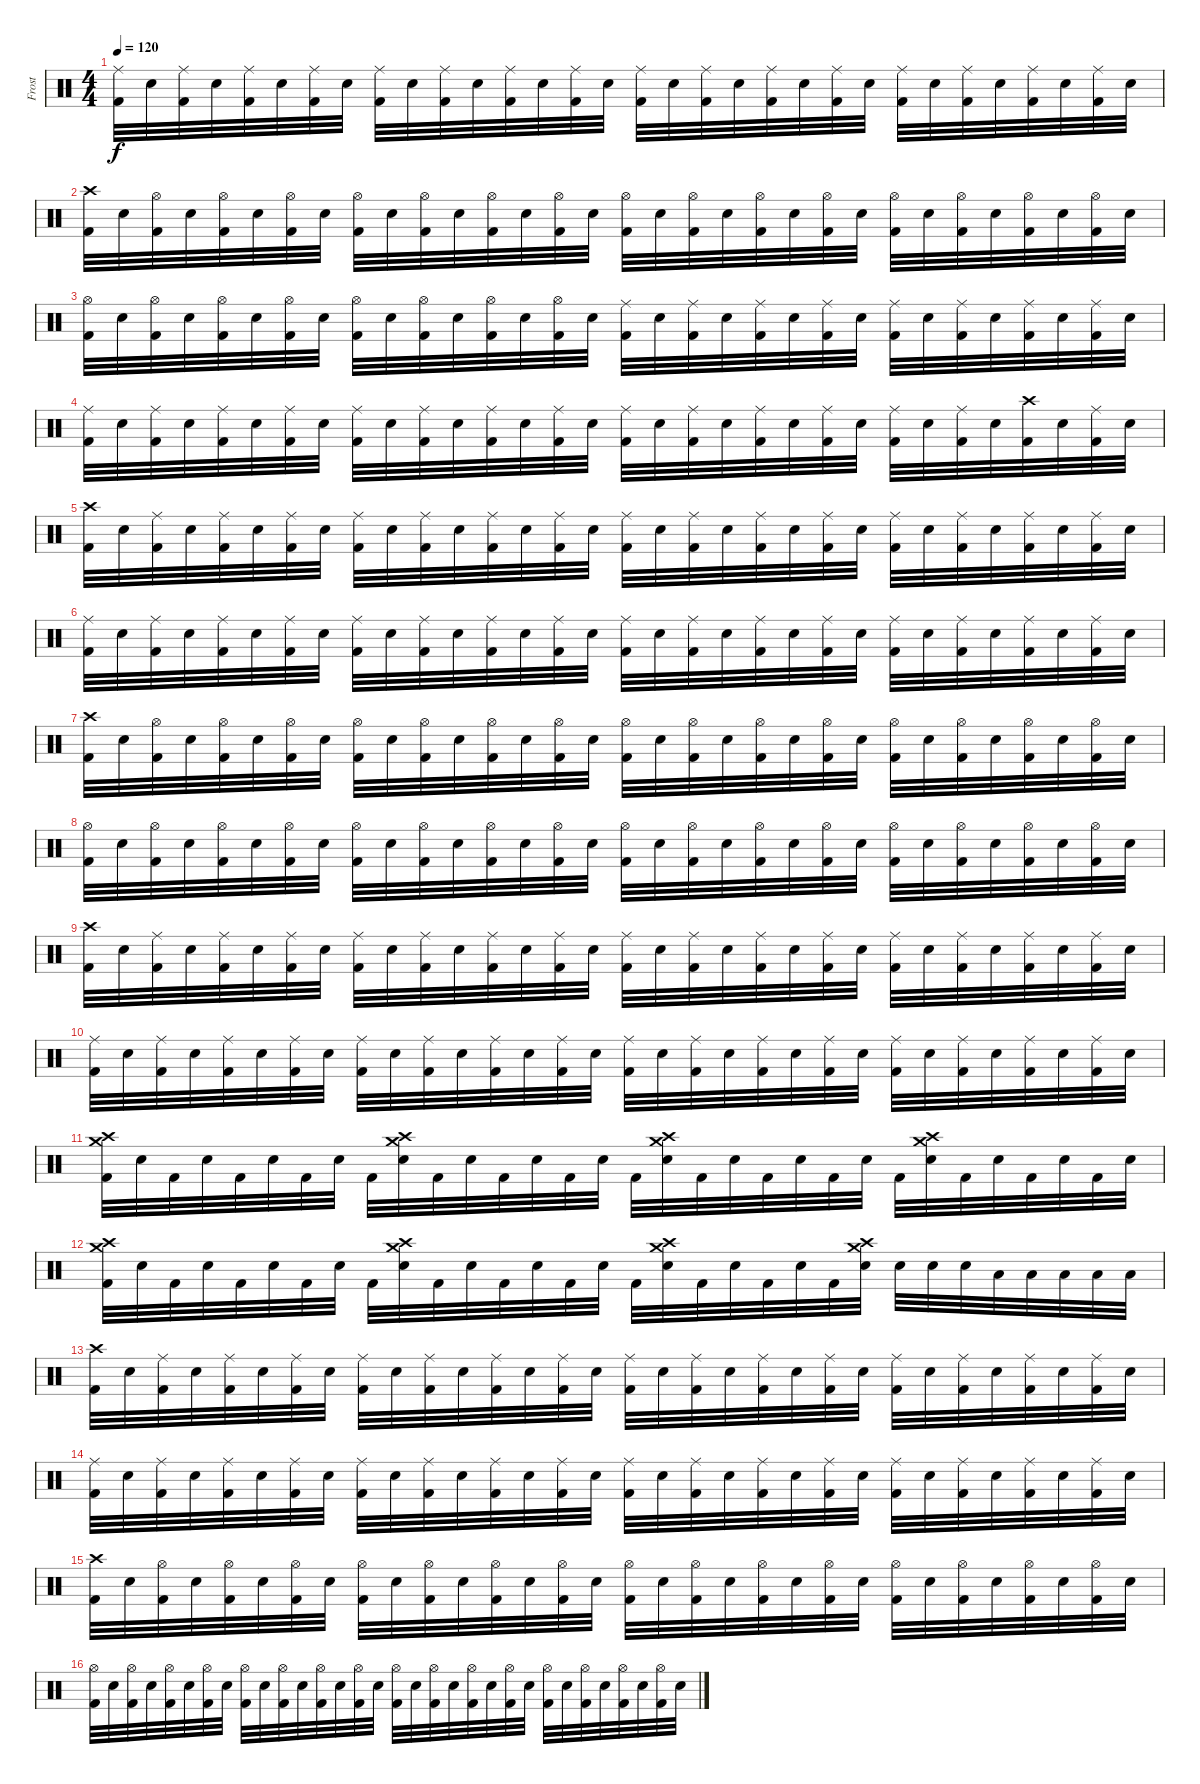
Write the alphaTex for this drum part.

\track ("Frost" "Frost") {instrument percussion}
\staff {score}
\articulation defaults
\ts (4 4)
\tempo 120
\clef neutral
\ks c
("Ride (middle)" "Kick (hit) 2").32{dy f} "Snare (hit) 2".32 ("Ride (middle)" "Kick (hit) 2").32 "Snare (hit) 2".32 ("Ride (middle)" "Kick (hit) 2").32 "Snare (hit) 2".32 ("Ride (middle)" "Kick (hit) 2").32 "Snare (hit) 2".32 ("Ride (middle)" "Kick (hit) 2").32 "Snare (hit) 2".32 ("Ride (middle)" "Kick (hit) 2").32 "Snare (hit) 2".32 ("Ride (middle)" "Kick (hit) 2").32 "Snare (hit) 2".32 ("Ride (middle)" "Kick (hit) 2").32 "Snare (hit) 2".32 ("Ride (middle)" "Kick (hit) 2").32 "Snare (hit) 2".32 ("Ride (middle)" "Kick (hit) 2").32 "Snare (hit) 2".32 ("Ride (middle)" "Kick (hit) 2").32 "Snare (hit) 2".32 ("Ride (middle)" "Kick (hit) 2").32 "Snare (hit) 2".32 ("Ride (middle)" "Kick (hit) 2").32 "Snare (hit) 2".32 ("Ride (middle)" "Kick (hit) 2").32 "Snare (hit) 2".32 ("Ride (middle)" "Kick (hit) 2").32 "Snare (hit) 2".32 ("Ride (middle)" "Kick (hit) 2").32 "Snare (hit) 2".32 |
("Crash high (hit)" "Kick (hit) 2").32 "Snare (hit) 2".32 ("Hi-Hat (open)" "Kick (hit) 2").32 "Snare (hit) 2".32 ("Hi-Hat (open)" "Kick (hit) 2").32 "Snare (hit) 2".32 ("Hi-Hat (open)" "Kick (hit) 2").32 "Snare (hit) 2".32 ("Hi-Hat (open)" "Kick (hit) 2").32 "Snare (hit) 2".32 ("Hi-Hat (open)" "Kick (hit) 2").32 "Snare (hit) 2".32 ("Hi-Hat (open)" "Kick (hit) 2").32 "Snare (hit) 2".32 ("Hi-Hat (open)" "Kick (hit) 2").32 "Snare (hit) 2".32 ("Hi-Hat (open)" "Kick (hit) 2").32 "Snare (hit) 2".32 ("Hi-Hat (open)" "Kick (hit) 2").32 "Snare (hit) 2".32 ("Hi-Hat (open)" "Kick (hit) 2").32 "Snare (hit) 2".32 ("Hi-Hat (open)" "Kick (hit) 2").32 "Snare (hit) 2".32 ("Hi-Hat (open)" "Kick (hit) 2").32 "Snare (hit) 2".32 ("Hi-Hat (open)" "Kick (hit) 2").32 "Snare (hit) 2".32 ("Hi-Hat (open)" "Kick (hit) 2").32 "Snare (hit) 2".32 ("Hi-Hat (open)" "Kick (hit) 2").32 "Snare (hit) 2".32 |
("Hi-Hat (open)" "Kick (hit) 2").32 "Snare (hit) 2".32 ("Hi-Hat (open)" "Kick (hit) 2").32 "Snare (hit) 2".32 ("Hi-Hat (open)" "Kick (hit) 2").32 "Snare (hit) 2".32 ("Hi-Hat (open)" "Kick (hit) 2").32 "Snare (hit) 2".32 ("Hi-Hat (open)" "Kick (hit) 2").32 "Snare (hit) 2".32 ("Hi-Hat (open)" "Kick (hit) 2").32 "Snare (hit) 2".32 ("Hi-Hat (open)" "Kick (hit) 2").32 "Snare (hit) 2".32 ("Hi-Hat (open)" "Kick (hit) 2").32 "Snare (hit) 2".32 ("Ride (middle)" "Kick (hit) 2").32 "Snare (hit) 2".32 ("Ride (middle)" "Kick (hit) 2").32 "Snare (hit) 2".32 ("Ride (middle)" "Kick (hit) 2").32 "Snare (hit) 2".32 ("Ride (middle)" "Kick (hit) 2").32 "Snare (hit) 2".32 ("Ride (middle)" "Kick (hit) 2").32 "Snare (hit) 2".32 ("Ride (middle)" "Kick (hit) 2").32 "Snare (hit) 2".32 ("Ride (middle)" "Kick (hit) 2").32 "Snare (hit) 2".32 ("Ride (middle)" "Kick (hit) 2").32 "Snare (hit) 2".32 |
("Ride (middle)" "Kick (hit) 2").32 "Snare (hit) 2".32 ("Ride (middle)" "Kick (hit) 2").32 "Snare (hit) 2".32 ("Ride (middle)" "Kick (hit) 2").32 "Snare (hit) 2".32 ("Ride (middle)" "Kick (hit) 2").32 "Snare (hit) 2".32 ("Ride (middle)" "Kick (hit) 2").32 "Snare (hit) 2".32 ("Ride (middle)" "Kick (hit) 2").32 "Snare (hit) 2".32 ("Ride (middle)" "Kick (hit) 2").32 "Snare (hit) 2".32 ("Ride (middle)" "Kick (hit) 2").32 "Snare (hit) 2".32 ("Ride (middle)" "Kick (hit) 2").32 "Snare (hit) 2".32 ("Ride (middle)" "Kick (hit) 2").32 "Snare (hit) 2".32 ("Ride (middle)" "Kick (hit) 2").32 "Snare (hit) 2".32 ("Ride (middle)" "Kick (hit) 2").32 "Snare (hit) 2".32 ("Ride (middle)" "Kick (hit) 2").32 "Snare (hit) 2".32 ("Ride (middle)" "Kick (hit) 2").32 "Snare (hit) 2".32 ("Crash high (hit)" "Kick (hit) 2").32 "Snare (hit) 2".32 ("Ride (middle)" "Kick (hit) 2").32 "Snare (hit) 2".32 |
("Crash high (hit)" "Kick (hit) 2").32 "Snare (hit) 2".32 ("Ride (middle)" "Kick (hit) 2").32 "Snare (hit) 2".32 ("Ride (middle)" "Kick (hit) 2").32 "Snare (hit) 2".32 ("Ride (middle)" "Kick (hit) 2").32 "Snare (hit) 2".32 ("Ride (middle)" "Kick (hit) 2").32 "Snare (hit) 2".32 ("Ride (middle)" "Kick (hit) 2").32 "Snare (hit) 2".32 ("Ride (middle)" "Kick (hit) 2").32 "Snare (hit) 2".32 ("Ride (middle)" "Kick (hit) 2").32 "Snare (hit) 2".32 ("Ride (middle)" "Kick (hit) 2").32 "Snare (hit) 2".32 ("Ride (middle)" "Kick (hit) 2").32 "Snare (hit) 2".32 ("Ride (middle)" "Kick (hit) 2").32 "Snare (hit) 2".32 ("Ride (middle)" "Kick (hit) 2").32 "Snare (hit) 2".32 ("Ride (middle)" "Kick (hit) 2").32 "Snare (hit) 2".32 ("Ride (middle)" "Kick (hit) 2").32 "Snare (hit) 2".32 ("Ride (middle)" "Kick (hit) 2").32 "Snare (hit) 2".32 ("Ride (middle)" "Kick (hit) 2").32 "Snare (hit) 2".32 |
("Ride (middle)" "Kick (hit) 2").32 "Snare (hit) 2".32 ("Ride (middle)" "Kick (hit) 2").32 "Snare (hit) 2".32 ("Ride (middle)" "Kick (hit) 2").32 "Snare (hit) 2".32 ("Ride (middle)" "Kick (hit) 2").32 "Snare (hit) 2".32 ("Ride (middle)" "Kick (hit) 2").32 "Snare (hit) 2".32 ("Ride (middle)" "Kick (hit) 2").32 "Snare (hit) 2".32 ("Ride (middle)" "Kick (hit) 2").32 "Snare (hit) 2".32 ("Ride (middle)" "Kick (hit) 2").32 "Snare (hit) 2".32 ("Ride (middle)" "Kick (hit) 2").32 "Snare (hit) 2".32 ("Ride (middle)" "Kick (hit) 2").32 "Snare (hit) 2".32 ("Ride (middle)" "Kick (hit) 2").32 "Snare (hit) 2".32 ("Ride (middle)" "Kick (hit) 2").32 "Snare (hit) 2".32 ("Ride (middle)" "Kick (hit) 2").32 "Snare (hit) 2".32 ("Ride (middle)" "Kick (hit) 2").32 "Snare (hit) 2".32 ("Ride (middle)" "Kick (hit) 2").32 "Snare (hit) 2".32 ("Ride (middle)" "Kick (hit) 2").32 "Snare (hit) 2".32 |
("Crash high (hit)" "Kick (hit) 2").32 "Snare (hit) 2".32 ("Hi-Hat (open)" "Kick (hit) 2").32 "Snare (hit) 2".32 ("Hi-Hat (open)" "Kick (hit) 2").32 "Snare (hit) 2".32 ("Hi-Hat (open)" "Kick (hit) 2").32 "Snare (hit) 2".32 ("Hi-Hat (open)" "Kick (hit) 2").32 "Snare (hit) 2".32 ("Hi-Hat (open)" "Kick (hit) 2").32 "Snare (hit) 2".32 ("Hi-Hat (open)" "Kick (hit) 2").32 "Snare (hit) 2".32 ("Hi-Hat (open)" "Kick (hit) 2").32 "Snare (hit) 2".32 ("Hi-Hat (open)" "Kick (hit) 2").32 "Snare (hit) 2".32 ("Hi-Hat (open)" "Kick (hit) 2").32 "Snare (hit) 2".32 ("Hi-Hat (open)" "Kick (hit) 2").32 "Snare (hit) 2".32 ("Hi-Hat (open)" "Kick (hit) 2").32 "Snare (hit) 2".32 ("Hi-Hat (open)" "Kick (hit) 2").32 "Snare (hit) 2".32 ("Hi-Hat (open)" "Kick (hit) 2").32 "Snare (hit) 2".32 ("Hi-Hat (open)" "Kick (hit) 2").32 "Snare (hit) 2".32 ("Hi-Hat (open)" "Kick (hit) 2").32 "Snare (hit) 2".32 |
("Hi-Hat (open)" "Kick (hit) 2").32 "Snare (hit) 2".32 ("Hi-Hat (open)" "Kick (hit) 2").32 "Snare (hit) 2".32 ("Hi-Hat (open)" "Kick (hit) 2").32 "Snare (hit) 2".32 ("Hi-Hat (open)" "Kick (hit) 2").32 "Snare (hit) 2".32 ("Hi-Hat (open)" "Kick (hit) 2").32 "Snare (hit) 2".32 ("Hi-Hat (open)" "Kick (hit) 2").32 "Snare (hit) 2".32 ("Hi-Hat (open)" "Kick (hit) 2").32 "Snare (hit) 2".32 ("Hi-Hat (open)" "Kick (hit) 2").32 "Snare (hit) 2".32 ("Hi-Hat (open)" "Kick (hit) 2").32 "Snare (hit) 2".32 ("Hi-Hat (open)" "Kick (hit) 2").32 "Snare (hit) 2".32 ("Hi-Hat (open)" "Kick (hit) 2").32 "Snare (hit) 2".32 ("Hi-Hat (open)" "Kick (hit) 2").32 "Snare (hit) 2".32 ("Hi-Hat (open)" "Kick (hit) 2").32 "Snare (hit) 2".32 ("Hi-Hat (open)" "Kick (hit) 2").32 "Snare (hit) 2".32 ("Hi-Hat (open)" "Kick (hit) 2").32 "Snare (hit) 2".32 ("Hi-Hat (open)" "Kick (hit) 2").32 "Snare (hit) 2".32 |
("Crash high (hit)" "Kick (hit) 2").32 "Snare (hit) 2".32 ("Ride (middle)" "Kick (hit) 2").32 "Snare (hit) 2".32 ("Ride (middle)" "Kick (hit) 2").32 "Snare (hit) 2".32 ("Ride (middle)" "Kick (hit) 2").32 "Snare (hit) 2".32 ("Ride (middle)" "Kick (hit) 2").32 "Snare (hit) 2".32 ("Ride (middle)" "Kick (hit) 2").32 "Snare (hit) 2".32 ("Ride (middle)" "Kick (hit) 2").32 "Snare (hit) 2".32 ("Ride (middle)" "Kick (hit) 2").32 "Snare (hit) 2".32 ("Ride (middle)" "Kick (hit) 2").32 "Snare (hit) 2".32 ("Ride (middle)" "Kick (hit) 2").32 "Snare (hit) 2".32 ("Ride (middle)" "Kick (hit) 2").32 "Snare (hit) 2".32 ("Ride (middle)" "Kick (hit) 2").32 "Snare (hit) 2".32 ("Ride (middle)" "Kick (hit) 2").32 "Snare (hit) 2".32 ("Ride (middle)" "Kick (hit) 2").32 "Snare (hit) 2".32 ("Ride (middle)" "Kick (hit) 2").32 "Snare (hit) 2".32 ("Ride (middle)" "Kick (hit) 2").32 "Snare (hit) 2".32 |
("Ride (middle)" "Kick (hit) 2").32 "Snare (hit) 2".32 ("Ride (middle)" "Kick (hit) 2").32 "Snare (hit) 2".32 ("Ride (middle)" "Kick (hit) 2").32 "Snare (hit) 2".32 ("Ride (middle)" "Kick (hit) 2").32 "Snare (hit) 2".32 ("Ride (middle)" "Kick (hit) 2").32 "Snare (hit) 2".32 ("Ride (middle)" "Kick (hit) 2").32 "Snare (hit) 2".32 ("Ride (middle)" "Kick (hit) 2").32 "Snare (hit) 2".32 ("Ride (middle)" "Kick (hit) 2").32 "Snare (hit) 2".32 ("Ride (middle)" "Kick (hit) 2").32 "Snare (hit) 2".32 ("Ride (middle)" "Kick (hit) 2").32 "Snare (hit) 2".32 ("Ride (middle)" "Kick (hit) 2").32 "Snare (hit) 2".32 ("Ride (middle)" "Kick (hit) 2").32 "Snare (hit) 2".32 ("Ride (middle)" "Kick (hit) 2").32 "Snare (hit) 2".32 ("Ride (middle)" "Kick (hit) 2").32 "Snare (hit) 2".32 ("Ride (middle)" "Kick (hit) 2").32 "Snare (hit) 2".32 ("Ride (middle)" "Kick (hit) 2").32 "Snare (hit) 2".32 |
("Crash medium (hit)" "Crash high (hit)" "Kick (hit) 2").32 "Snare (hit) 2".32 "Kick (hit) 2".32 "Snare (hit) 2".32 "Kick (hit) 2".32 "Snare (hit) 2".32 "Kick (hit) 2".32 "Snare (hit) 2".32 "Kick (hit) 2".32 ("Crash medium (hit)" "Crash high (hit)" "Snare (hit) 2").32 "Kick (hit) 2".32 "Snare (hit) 2".32 "Kick (hit) 2".32 "Snare (hit) 2".32 "Kick (hit) 2".32 "Snare (hit) 2".32 "Kick (hit) 2".32 ("Crash medium (hit)" "Crash high (hit)" "Snare (hit) 2").32 "Kick (hit) 2".32 "Snare (hit) 2".32 "Kick (hit) 2".32 "Snare (hit) 2".32 "Kick (hit) 2".32 "Snare (hit) 2".32 "Kick (hit) 2".32 ("Crash medium (hit)" "Crash high (hit)" "Snare (hit) 2").32 "Kick (hit) 2".32 "Snare (hit) 2".32 "Kick (hit) 2".32 "Snare (hit) 2".32 "Kick (hit) 2".32 "Snare (hit) 2".32 |
("Crash medium (hit)" "Crash high (hit)" "Kick (hit) 2").32 "Snare (hit) 2".32 "Kick (hit) 2".32 "Snare (hit) 2".32 "Kick (hit) 2".32 "Snare (hit) 2".32 "Kick (hit) 2".32 "Snare (hit) 2".32 "Kick (hit) 2".32 ("Crash medium (hit)" "Crash high (hit)" "Snare (hit) 2").32 "Kick (hit) 2".32 "Snare (hit) 2".32 "Kick (hit) 2".32 "Snare (hit) 2".32 "Kick (hit) 2".32 "Snare (hit) 2".32 "Kick (hit) 2".32 ("Crash medium (hit)" "Crash high (hit)" "Snare (hit) 2").32 "Kick (hit) 2".32 "Snare (hit) 2".32 "Kick (hit) 2".32 "Snare (hit) 2".32 "Kick (hit) 2".32 ("Crash medium (hit)" "Crash high (hit)" "Snare (hit) 2").32 "Snare (hit) 2".32 "Snare (hit) 2".32 "Snare (hit) 2".32 "Low Tom (hit)".32 "Low Tom (hit)".32 "Low Tom (hit)".32 "Low Tom (hit)".32 "Low Tom (hit)".32 |
("Crash high (hit)" "Kick (hit) 2").32 "Snare (hit) 2".32 ("Ride (middle)" "Kick (hit) 2").32 "Snare (hit) 2".32 ("Ride (middle)" "Kick (hit) 2").32 "Snare (hit) 2".32 ("Ride (middle)" "Kick (hit) 2").32 "Snare (hit) 2".32 ("Ride (middle)" "Kick (hit) 2").32 "Snare (hit) 2".32 ("Ride (middle)" "Kick (hit) 2").32 "Snare (hit) 2".32 ("Ride (middle)" "Kick (hit) 2").32 "Snare (hit) 2".32 ("Ride (middle)" "Kick (hit) 2").32 "Snare (hit) 2".32 ("Ride (middle)" "Kick (hit) 2").32 "Snare (hit) 2".32 ("Ride (middle)" "Kick (hit) 2").32 "Snare (hit) 2".32 ("Ride (middle)" "Kick (hit) 2").32 "Snare (hit) 2".32 ("Ride (middle)" "Kick (hit) 2").32 "Snare (hit) 2".32 ("Ride (middle)" "Kick (hit) 2").32 "Snare (hit) 2".32 ("Ride (middle)" "Kick (hit) 2").32 "Snare (hit) 2".32 ("Ride (middle)" "Kick (hit) 2").32 "Snare (hit) 2".32 ("Ride (middle)" "Kick (hit) 2").32 "Snare (hit) 2".32 |
("Ride (middle)" "Kick (hit) 2").32 "Snare (hit) 2".32 ("Ride (middle)" "Kick (hit) 2").32 "Snare (hit) 2".32 ("Ride (middle)" "Kick (hit) 2").32 "Snare (hit) 2".32 ("Ride (middle)" "Kick (hit) 2").32 "Snare (hit) 2".32 ("Ride (middle)" "Kick (hit) 2").32 "Snare (hit) 2".32 ("Ride (middle)" "Kick (hit) 2").32 "Snare (hit) 2".32 ("Ride (middle)" "Kick (hit) 2").32 "Snare (hit) 2".32 ("Ride (middle)" "Kick (hit) 2").32 "Snare (hit) 2".32 ("Ride (middle)" "Kick (hit) 2").32 "Snare (hit) 2".32 ("Ride (middle)" "Kick (hit) 2").32 "Snare (hit) 2".32 ("Ride (middle)" "Kick (hit) 2").32 "Snare (hit) 2".32 ("Ride (middle)" "Kick (hit) 2").32 "Snare (hit) 2".32 ("Ride (middle)" "Kick (hit) 2").32 "Snare (hit) 2".32 ("Ride (middle)" "Kick (hit) 2").32 "Snare (hit) 2".32 ("Ride (middle)" "Kick (hit) 2").32 "Snare (hit) 2".32 ("Ride (middle)" "Kick (hit) 2").32 "Snare (hit) 2".32 |
("Crash high (hit)" "Kick (hit) 2").32 "Snare (hit) 2".32 ("Hi-Hat (open)" "Kick (hit) 2").32 "Snare (hit) 2".32 ("Hi-Hat (open)" "Kick (hit) 2").32 "Snare (hit) 2".32 ("Hi-Hat (open)" "Kick (hit) 2").32 "Snare (hit) 2".32 ("Hi-Hat (open)" "Kick (hit) 2").32 "Snare (hit) 2".32 ("Hi-Hat (open)" "Kick (hit) 2").32 "Snare (hit) 2".32 ("Hi-Hat (open)" "Kick (hit) 2").32 "Snare (hit) 2".32 ("Hi-Hat (open)" "Kick (hit) 2").32 "Snare (hit) 2".32 ("Hi-Hat (open)" "Kick (hit) 2").32 "Snare (hit) 2".32 ("Hi-Hat (open)" "Kick (hit) 2").32 "Snare (hit) 2".32 ("Hi-Hat (open)" "Kick (hit) 2").32 "Snare (hit) 2".32 ("Hi-Hat (open)" "Kick (hit) 2").32 "Snare (hit) 2".32 ("Hi-Hat (open)" "Kick (hit) 2").32 "Snare (hit) 2".32 ("Hi-Hat (open)" "Kick (hit) 2").32 "Snare (hit) 2".32 ("Hi-Hat (open)" "Kick (hit) 2").32 "Snare (hit) 2".32 ("Hi-Hat (open)" "Kick (hit) 2").32 "Snare (hit) 2".32 |
("Hi-Hat (open)" "Kick (hit) 2").32 "Snare (hit) 2".32 ("Hi-Hat (open)" "Kick (hit) 2").32 "Snare (hit) 2".32 ("Hi-Hat (open)" "Kick (hit) 2").32 "Snare (hit) 2".32 ("Hi-Hat (open)" "Kick (hit) 2").32 "Snare (hit) 2".32 ("Hi-Hat (open)" "Kick (hit) 2").32 "Snare (hit) 2".32 ("Hi-Hat (open)" "Kick (hit) 2").32 "Snare (hit) 2".32 ("Hi-Hat (open)" "Kick (hit) 2").32 "Snare (hit) 2".32 ("Hi-Hat (open)" "Kick (hit) 2").32 "Snare (hit) 2".32 ("Hi-Hat (open)" "Kick (hit) 2").32 "Snare (hit) 2".32 ("Hi-Hat (open)" "Kick (hit) 2").32 "Snare (hit) 2".32 ("Hi-Hat (open)" "Kick (hit) 2").32 "Snare (hit) 2".32 ("Hi-Hat (open)" "Kick (hit) 2").32 "Snare (hit) 2".32 ("Hi-Hat (open)" "Kick (hit) 2").32 "Snare (hit) 2".32 ("Hi-Hat (open)" "Kick (hit) 2").32 "Snare (hit) 2".32 ("Hi-Hat (open)" "Kick (hit) 2").32 "Snare (hit) 2".32 ("Hi-Hat (open)" "Kick (hit) 2").32 "Snare (hit) 2".32
